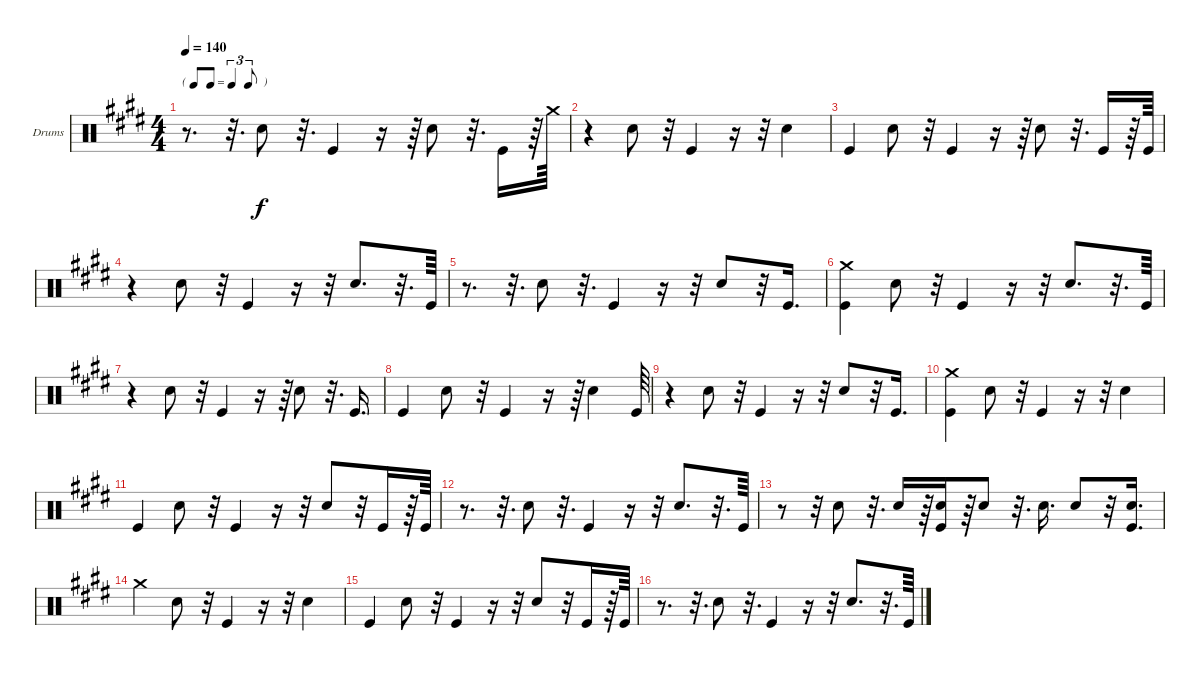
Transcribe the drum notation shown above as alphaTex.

\bracketExtendMode groupsimilarinstruments
\firstSystemTrackNameOrientation horizontal
\otherSystemsTrackNameOrientation horizontal
\track ("Drumkit" "Drums") {instrument percussion}
\staff {score}
\articulation defaults
\ts (4 4)
\tf triplet8th
\tempo 140
\clef neutral
\ks e
r.8{d dy f} r.32{d} "Snare (hit) 2".8 r.32{d} "Kick (hit)".4 r.16 r.64 "Snare (hit) 2".8 r.32{d} "Kick (hit)".16 r.64 "Crash medium (hit)".64 |
r.4 "Snare (hit) 2".8 r.32 "Kick (hit)".4 r.16 r.32 "Snare (hit) 2".4 |
"Kick (hit)".4 "Snare (hit) 2".8 r.32 "Kick (hit)".4 r.16 r.64 "Snare (hit) 2".8 r.32{d} "Kick (hit)".16 r.64 "Kick (hit)".64 |
r.4 "Snare (hit) 2".8 r.32 "Kick (hit)".4 r.16 r.32 "Snare (hit) 2".8{d} r.32{d} "Kick (hit)".64 |
r.8{d} r.32{d} "Snare (hit) 2".8 r.32{d} "Kick (hit)".4 r.16 r.32 "Snare (hit) 2".8 r.32 "Kick (hit)".16{d} |
("Kick (hit)" "Crash medium (hit)").4 "Snare (hit) 2".8 r.32 "Kick (hit)".4 r.16 r.32 "Snare (hit) 2".8{d} r.32{d} "Kick (hit)".64 |
r.4 "Snare (hit) 2".8 r.32 "Kick (hit)".4 r.16 r.64 "Snare (hit) 2".8 r.32{d} "Kick (hit)".16{d} |
"Kick (hit)".4 "Snare (hit) 2".8 r.32 "Kick (hit)".4 r.16 r.64 "Snare (hit) 2".4 "Kick (hit)".64 |
r.4 "Snare (hit) 2".8 r.32 "Kick (hit)".4 r.16 r.32 "Snare (hit) 2".8 r.32 "Kick (hit)".16{d} |
("Kick (hit)" "Crash medium (hit)").4 "Snare (hit) 2".8 r.32 "Kick (hit)".4 r.16 r.32 "Snare (hit) 2".4 |
"Kick (hit)".4 "Snare (hit) 2".8 r.32 "Kick (hit)".4 r.16 r.32 "Snare (hit) 2".8 r.32 "Kick (hit)".16 r.64 "Kick (hit)".64 |
r.8{d} r.32{d} "Snare (hit) 2".8 r.32{d} "Kick (hit)".4 r.16 r.32 "Snare (hit) 2".8{d} r.32{d} "Kick (hit)".64 |
r.8 r.32 "Snare (hit) 2".8 r.32{d} "Snare (hit) 2".16 r.64 ("Kick (hit)" "Snare (hit) 2").16 r.64 "Snare (hit) 2".8 r.32{d} "Snare (hit) 2".16{d} "Snare (hit) 2".8 r.32 ("Kick (hit)" "Snare (hit) 2").16{d} |
"Crash medium (hit)".4 "Snare (hit) 2".8 r.32 "Kick (hit)".4 r.16 r.32 "Snare (hit) 2".4 |
"Kick (hit)".4 "Snare (hit) 2".8 r.32 "Kick (hit)".4 r.16 r.32 "Snare (hit) 2".8 r.32 "Kick (hit)".16 r.64 "Kick (hit)".64 |
r.8{d} r.32{d} "Snare (hit) 2".8 r.32{d} "Kick (hit)".4 r.16 r.32 "Snare (hit) 2".8{d} r.32{d} "Kick (hit)".64
